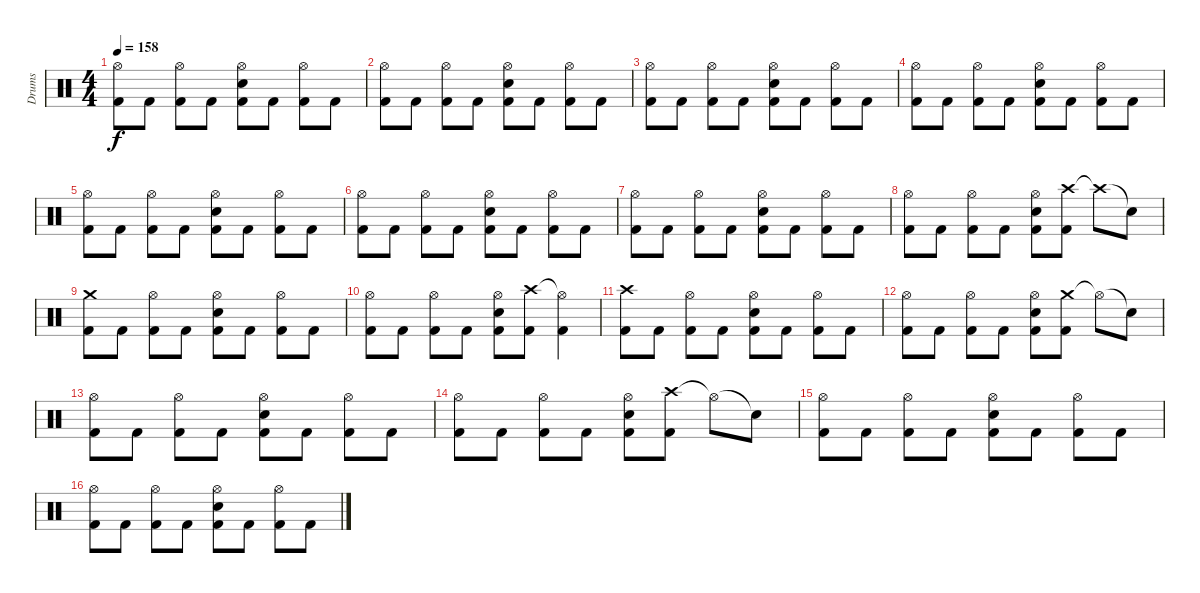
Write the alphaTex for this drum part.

\track ("Drums" "Drums") {instrument percussion}
\staff {score}
\articulation defaults
\ts (4 4)
\tempo 158
\clef neutral
\ks c
("Hi-Hat (open)" "Kick (hit) 2").8{dy f} "Kick (hit) 2".8 ("Hi-Hat (open)" "Kick (hit) 2").8 "Kick (hit) 2".8 ("Hi-Hat (open)" "Snare (hit) 2" "Kick (hit) 2").8 "Kick (hit) 2".8 ("Hi-Hat (open)" "Kick (hit) 2").8 "Kick (hit) 2".8 |
("Hi-Hat (open)" "Kick (hit) 2").8 "Kick (hit) 2".8 ("Hi-Hat (open)" "Kick (hit) 2").8 "Kick (hit) 2".8 ("Hi-Hat (open)" "Snare (hit) 2" "Kick (hit) 2").8 "Kick (hit) 2".8 ("Hi-Hat (open)" "Kick (hit) 2").8 "Kick (hit) 2".8 |
("Hi-Hat (open)" "Kick (hit) 2").8 "Kick (hit) 2".8 ("Hi-Hat (open)" "Kick (hit) 2").8 "Kick (hit) 2".8 ("Hi-Hat (open)" "Snare (hit) 2" "Kick (hit) 2").8 "Kick (hit) 2".8 ("Hi-Hat (open)" "Kick (hit) 2").8 "Kick (hit) 2".8 |
("Hi-Hat (open)" "Kick (hit) 2").8 "Kick (hit) 2".8 ("Hi-Hat (open)" "Kick (hit) 2").8 "Kick (hit) 2".8 ("Hi-Hat (open)" "Snare (hit) 2" "Kick (hit) 2").8 "Kick (hit) 2".8 ("Hi-Hat (open)" "Kick (hit) 2").8 "Kick (hit) 2".8 |
("Hi-Hat (open)" "Kick (hit) 2").8 "Kick (hit) 2".8 ("Hi-Hat (open)" "Kick (hit) 2").8 "Kick (hit) 2".8 ("Hi-Hat (open)" "Snare (hit) 2" "Kick (hit) 2").8 "Kick (hit) 2".8 ("Hi-Hat (open)" "Kick (hit) 2").8 "Kick (hit) 2".8 |
("Hi-Hat (open)" "Kick (hit) 2").8 "Kick (hit) 2".8 ("Hi-Hat (open)" "Kick (hit) 2").8 "Kick (hit) 2".8 ("Hi-Hat (open)" "Snare (hit) 2" "Kick (hit) 2").8 "Kick (hit) 2".8 ("Hi-Hat (open)" "Kick (hit) 2").8 "Kick (hit) 2".8 |
("Hi-Hat (open)" "Kick (hit) 2").8 "Kick (hit) 2".8 ("Hi-Hat (open)" "Kick (hit) 2").8 "Kick (hit) 2".8 ("Hi-Hat (open)" "Snare (hit) 2" "Kick (hit) 2").8 "Kick (hit) 2".8 ("Hi-Hat (open)" "Kick (hit) 2").8 "Kick (hit) 2".8 |
("Hi-Hat (open)" "Kick (hit) 2").8 "Kick (hit) 2".8 ("Hi-Hat (open)" "Kick (hit) 2").8 "Kick (hit) 2".8 ("Hi-Hat (open)" "Snare (hit) 2" "Kick (hit) 2").8 ("Crash high (hit)" "Kick (hit) 2").8 "Crash high (hit)"{t}.8 "Snare (hit)"{t}.8 |
("Crash medium (hit)" "Kick (hit) 2").8 "Kick (hit) 2".8 ("Hi-Hat (open)" "Kick (hit) 2").8 "Kick (hit) 2".8 ("Hi-Hat (open)" "Snare (hit) 2" "Kick (hit) 2").8 "Kick (hit) 2".8 ("Hi-Hat (open)" "Kick (hit) 2").8 "Kick (hit) 2".8 |
("Hi-Hat (open)" "Kick (hit) 2").8 "Kick (hit) 2".8 ("Hi-Hat (open)" "Kick (hit) 2").8 "Kick (hit) 2".8 ("Hi-Hat (open)" "Snare (hit) 2" "Kick (hit) 2").8 ("Crash high (hit)" "Kick (hit) 2").8 ("Hi-Hat (open)"{t} "Kick (hit) 2").4 |
("Crash high (hit)" "Kick (hit) 2").8 "Kick (hit) 2".8 ("Hi-Hat (open)" "Kick (hit) 2").8 "Kick (hit) 2".8 ("Hi-Hat (open)" "Snare (hit) 2" "Kick (hit) 2").8 "Kick (hit) 2".8 ("Hi-Hat (open)" "Kick (hit) 2").8 "Kick (hit) 2".8 |
("Hi-Hat (open)" "Kick (hit) 2").8 "Kick (hit) 2".8 ("Hi-Hat (open)" "Kick (hit) 2").8 "Kick (hit) 2".8 ("Hi-Hat (open)" "Snare (hit) 2" "Kick (hit) 2").8 ("Crash medium (hit)" "Kick (hit) 2").8 "Hi-Hat (open)"{t}.8 "Snare (hit)"{t}.8 |
("Hi-Hat (open)" "Kick (hit) 2").8 "Kick (hit) 2".8 ("Hi-Hat (open)" "Kick (hit) 2").8 "Kick (hit) 2".8 ("Hi-Hat (open)" "Snare (hit) 2" "Kick (hit) 2").8 "Kick (hit) 2".8 ("Hi-Hat (open)" "Kick (hit) 2").8 "Kick (hit) 2".8 |
("Hi-Hat (open)" "Kick (hit) 2").8 "Kick (hit) 2".8 ("Hi-Hat (open)" "Kick (hit) 2").8 "Kick (hit) 2".8 ("Hi-Hat (open)" "Snare (hit) 2" "Kick (hit) 2").8 ("Crash high (hit)" "Kick (hit) 2").8 "Hi-Hat (open)"{t}.8 "Snare (hit)"{t}.8 |
("Hi-Hat (open)" "Kick (hit) 2").8 "Kick (hit) 2".8 ("Hi-Hat (open)" "Kick (hit) 2").8 "Kick (hit) 2".8 ("Hi-Hat (open)" "Snare (hit) 2" "Kick (hit) 2").8 "Kick (hit) 2".8 ("Hi-Hat (open)" "Kick (hit) 2").8 "Kick (hit) 2".8 |
("Hi-Hat (open)" "Kick (hit) 2").8 "Kick (hit) 2".8 ("Hi-Hat (open)" "Kick (hit) 2").8 "Kick (hit) 2".8 ("Hi-Hat (open)" "Snare (hit) 2" "Kick (hit) 2").8 "Kick (hit) 2".8 ("Hi-Hat (open)" "Kick (hit) 2").8 "Kick (hit) 2".8
